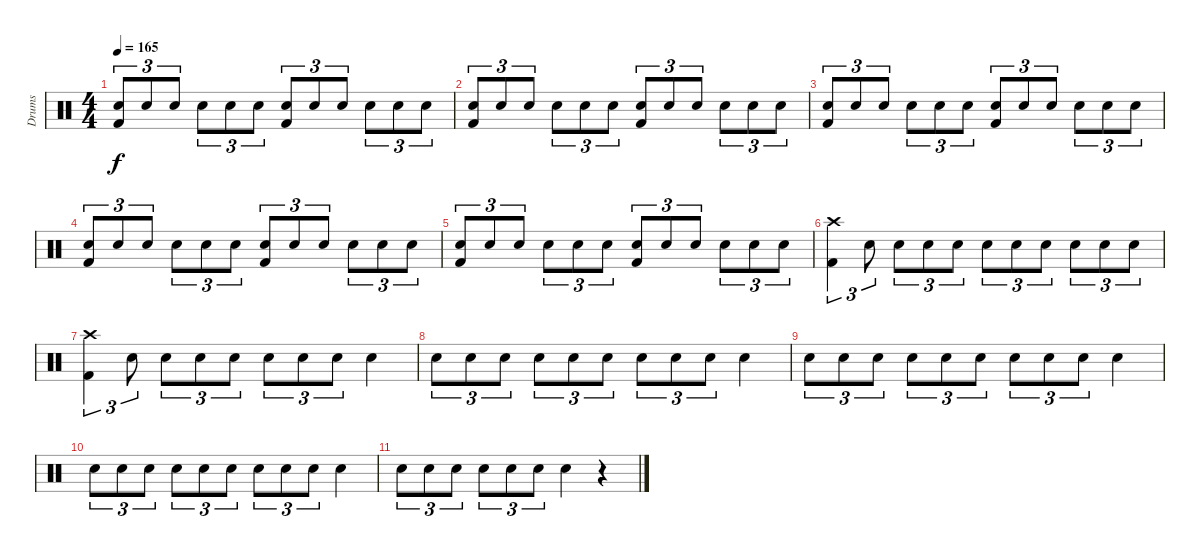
\track ("Drums" "Drums") {instrument percussion}
\staff {score}
\articulation defaults
\ts (4 4)
\tempo 165
\clef neutral
\ks c
("Kick (hit) 2" "Electric Snare (hit)").8{tu (3 2) dy f} "Electric Snare (hit)".8{tu (3 2)} "Electric Snare (hit)".8{tu (3 2)} "Electric Snare (hit)".8{tu (3 2)} "Electric Snare (hit)".8{tu (3 2)} "Electric Snare (hit)".8{tu (3 2)} ("Kick (hit) 2" "Electric Snare (hit)").8{tu (3 2)} "Electric Snare (hit)".8{tu (3 2)} "Electric Snare (hit)".8{tu (3 2)} "Electric Snare (hit)".8{tu (3 2)} "Electric Snare (hit)".8{tu (3 2)} "Electric Snare (hit)".8{tu (3 2)} |
("Kick (hit) 2" "Electric Snare (hit)").8{tu (3 2)} "Electric Snare (hit)".8{tu (3 2)} "Electric Snare (hit)".8{tu (3 2)} "Electric Snare (hit)".8{tu (3 2)} "Electric Snare (hit)".8{tu (3 2)} "Electric Snare (hit)".8{tu (3 2)} ("Kick (hit) 2" "Electric Snare (hit)").8{tu (3 2)} "Electric Snare (hit)".8{tu (3 2)} "Electric Snare (hit)".8{tu (3 2)} "Electric Snare (hit)".8{tu (3 2)} "Electric Snare (hit)".8{tu (3 2)} "Electric Snare (hit)".8{tu (3 2)} |
("Kick (hit) 2" "Electric Snare (hit)").8{tu (3 2)} "Electric Snare (hit)".8{tu (3 2)} "Electric Snare (hit)".8{tu (3 2)} "Electric Snare (hit)".8{tu (3 2)} "Electric Snare (hit)".8{tu (3 2)} "Electric Snare (hit)".8{tu (3 2)} ("Kick (hit) 2" "Electric Snare (hit)").8{tu (3 2)} "Electric Snare (hit)".8{tu (3 2)} "Electric Snare (hit)".8{tu (3 2)} "Electric Snare (hit)".8{tu (3 2)} "Electric Snare (hit)".8{tu (3 2)} "Electric Snare (hit)".8{tu (3 2)} |
("Kick (hit) 2" "Electric Snare (hit)").8{tu (3 2)} "Electric Snare (hit)".8{tu (3 2)} "Electric Snare (hit)".8{tu (3 2)} "Electric Snare (hit)".8{tu (3 2)} "Electric Snare (hit)".8{tu (3 2)} "Electric Snare (hit)".8{tu (3 2)} ("Kick (hit) 2" "Electric Snare (hit)").8{tu (3 2)} "Electric Snare (hit)".8{tu (3 2)} "Electric Snare (hit)".8{tu (3 2)} "Electric Snare (hit)".8{tu (3 2)} "Electric Snare (hit)".8{tu (3 2)} "Electric Snare (hit)".8{tu (3 2)} |
("Kick (hit) 2" "Electric Snare (hit)").8{tu (3 2)} "Electric Snare (hit)".8{tu (3 2)} "Electric Snare (hit)".8{tu (3 2)} "Electric Snare (hit)".8{tu (3 2)} "Electric Snare (hit)".8{tu (3 2)} "Electric Snare (hit)".8{tu (3 2)} ("Kick (hit) 2" "Electric Snare (hit)").8{tu (3 2)} "Electric Snare (hit)".8{tu (3 2)} "Electric Snare (hit)".8{tu (3 2)} "Electric Snare (hit)".8{tu (3 2)} "Electric Snare (hit)".8{tu (3 2)} "Electric Snare (hit)".8{tu (3 2)} |
("Crash high (hit)" "Kick (hit) 2").4{tu (3 2)} "Electric Snare (hit)".8{tu (3 2)} "Electric Snare (hit)".8{tu (3 2)} "Electric Snare (hit)".8{tu (3 2)} "Electric Snare (hit)".8{tu (3 2)} "Electric Snare (hit)".8{tu (3 2)} "Electric Snare (hit)".8{tu (3 2)} "Electric Snare (hit)".8{tu (3 2)} "Electric Snare (hit)".8{tu (3 2)} "Electric Snare (hit)".8{tu (3 2)} "Electric Snare (hit)".8{tu (3 2)} |
("Crash high (hit)" "Kick (hit) 2").4{tu (3 2)} "Electric Snare (hit)".8{tu (3 2)} "Electric Snare (hit)".8{tu (3 2)} "Electric Snare (hit)".8{tu (3 2)} "Electric Snare (hit)".8{tu (3 2)} "Electric Snare (hit)".8{tu (3 2)} "Electric Snare (hit)".8{tu (3 2)} "Electric Snare (hit)".8{tu (3 2)} "Electric Snare (hit)".4 |
"Electric Snare (hit)".8{tu (3 2)} "Electric Snare (hit)".8{tu (3 2)} "Electric Snare (hit)".8{tu (3 2)} "Electric Snare (hit)".8{tu (3 2)} "Electric Snare (hit)".8{tu (3 2)} "Electric Snare (hit)".8{tu (3 2)} "Electric Snare (hit)".8{tu (3 2)} "Electric Snare (hit)".8{tu (3 2)} "Electric Snare (hit)".8{tu (3 2)} "Electric Snare (hit)".4 |
"Electric Snare (hit)".8{tu (3 2)} "Electric Snare (hit)".8{tu (3 2)} "Electric Snare (hit)".8{tu (3 2)} "Electric Snare (hit)".8{tu (3 2)} "Electric Snare (hit)".8{tu (3 2)} "Electric Snare (hit)".8{tu (3 2)} "Electric Snare (hit)".8{tu (3 2)} "Electric Snare (hit)".8{tu (3 2)} "Electric Snare (hit)".8{tu (3 2)} "Electric Snare (hit)".4 |
"Electric Snare (hit)".8{tu (3 2)} "Electric Snare (hit)".8{tu (3 2)} "Electric Snare (hit)".8{tu (3 2)} "Electric Snare (hit)".8{tu (3 2)} "Electric Snare (hit)".8{tu (3 2)} "Electric Snare (hit)".8{tu (3 2)} "Electric Snare (hit)".8{tu (3 2)} "Electric Snare (hit)".8{tu (3 2)} "Electric Snare (hit)".8{tu (3 2)} "Electric Snare (hit)".4 |
"Electric Snare (hit)".8{tu (3 2)} "Electric Snare (hit)".8{tu (3 2)} "Electric Snare (hit)".8{tu (3 2)} "Electric Snare (hit)".8{tu (3 2)} "Electric Snare (hit)".8{tu (3 2)} "Electric Snare (hit)".8{tu (3 2)} "Electric Snare (hit)".4 r.4
